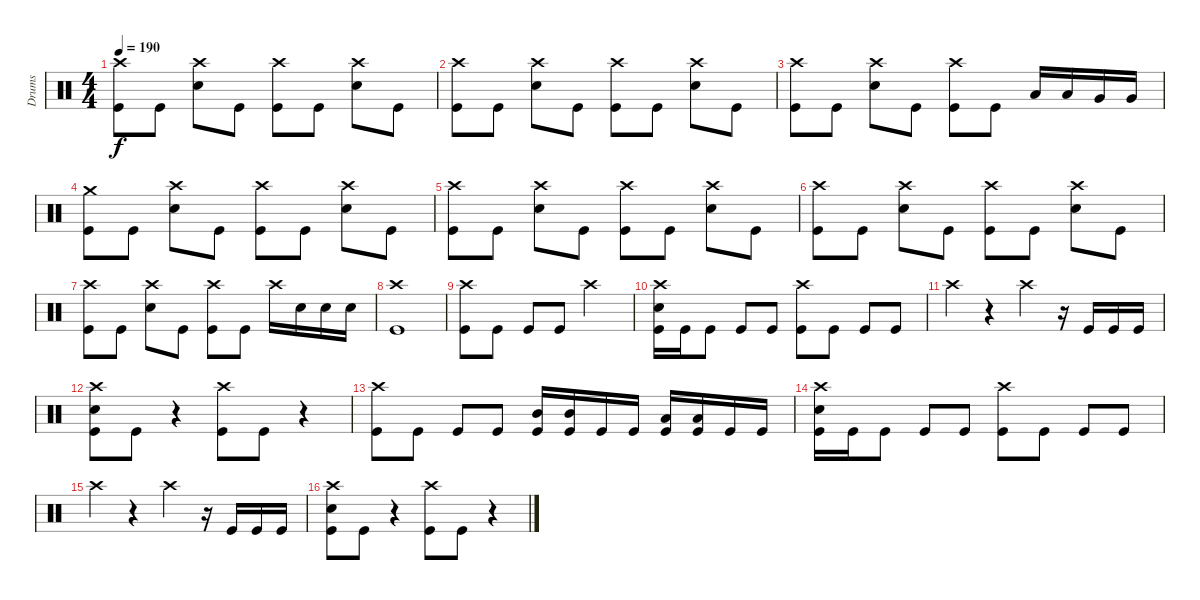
\track ("Drums" "Drums") {instrument percussion}
\staff {score}
\articulation defaults
\ts (4 4)
\tempo 190
\clef neutral
\ks c
("Crash high (hit)" "Kick (hit)").8{dy f} "Kick (hit)".8 ("Crash high (hit)" "Snare (hit) 2").8 "Kick (hit)".8 ("Crash high (hit)" "Kick (hit)").8 "Kick (hit)".8 ("Crash high (hit)" "Snare (hit) 2").8 "Kick (hit)".8 |
("Crash high (hit)" "Kick (hit)").8 "Kick (hit)".8 ("Crash high (hit)" "Snare (hit) 2").8 "Kick (hit)".8 ("Crash high (hit)" "Kick (hit)").8 "Kick (hit)".8 ("Crash high (hit)" "Snare (hit) 2").8 "Kick (hit)".8 |
("Crash high (hit)" "Kick (hit)").8 "Kick (hit)".8 ("Crash high (hit)" "Snare (hit) 2").8 "Kick (hit)".8 ("Crash high (hit)" "Kick (hit)").8 "Kick (hit)".8 "Low Tom (hit)".16 "Low Tom (hit)".16 "Very Low Tom (hit)".16 "Very Low Tom (hit)".16 |
("Crash medium (hit)" "Kick (hit)").8 "Kick (hit)".8 ("Crash high (hit)" "Snare (hit) 2").8 "Kick (hit)".8 ("Crash high (hit)" "Kick (hit)").8 "Kick (hit)".8 ("Crash high (hit)" "Snare (hit) 2").8 "Kick (hit)".8 |
("Crash high (hit)" "Kick (hit)").8 "Kick (hit)".8 ("Crash high (hit)" "Snare (hit) 2").8 "Kick (hit)".8 ("Crash high (hit)" "Kick (hit)").8 "Kick (hit)".8 ("Crash high (hit)" "Snare (hit) 2").8 "Kick (hit)".8 |
("Crash high (hit)" "Kick (hit)").8 "Kick (hit)".8 ("Crash high (hit)" "Snare (hit) 2").8 "Kick (hit)".8 ("Crash high (hit)" "Kick (hit)").8 "Kick (hit)".8 ("Crash high (hit)" "Snare (hit) 2").8 "Kick (hit)".8 |
("Crash high (hit)" "Kick (hit)").8 "Kick (hit)".8 ("Crash high (hit)" "Snare (hit) 2").8 "Kick (hit)".8 ("Crash high (hit)" "Kick (hit)").8 "Kick (hit)".8 "Crash high (hit)".16 "Snare (hit) 2".16 "Snare (hit) 2".16 "Snare (hit) 2".16 |
("Crash high (hit)" "Kick (hit)").1 |
("Crash high (hit)" "Kick (hit)").8 "Kick (hit)".8 "Kick (hit)".8 "Kick (hit)".8 "Crash high (hit)".2 |
("Crash high (hit)" "Snare (hit) 2" "Kick (hit)").16 "Kick (hit)".16 "Kick (hit)".8 "Kick (hit)".8 "Kick (hit)".8 ("Crash high (hit)" "Kick (hit)").8 "Kick (hit)".8 "Kick (hit)".8 "Kick (hit)".8 |
"Crash high (hit)".4 r.4 "Crash high (hit)".4 r.16 "Kick (hit)".16 "Kick (hit)".16 "Kick (hit)".16 |
("Crash high (hit)" "Snare (hit) 2" "Kick (hit)").8 "Kick (hit)".8 r.4 ("Crash high (hit)" "Kick (hit)").8 "Kick (hit)".8 r.4 |
("Crash high (hit)" "Kick (hit)").8 "Kick (hit)".8 "Kick (hit)".8 "Kick (hit)".8 ("Mid Tom (hit)" "Kick (hit)").16 ("Mid Tom (hit)" "Kick (hit)").16 "Kick (hit)".16 "Kick (hit)".16 ("Low Tom (hit)" "Kick (hit)").16 ("Low Tom (hit)" "Kick (hit)").16 "Kick (hit)".16 "Kick (hit)".16 |
("Crash high (hit)" "Snare (hit) 2" "Kick (hit)").16 "Kick (hit)".16 "Kick (hit)".8 "Kick (hit)".8 "Kick (hit)".8 ("Crash high (hit)" "Kick (hit)").8 "Kick (hit)".8 "Kick (hit)".8 "Kick (hit)".8 |
"Crash high (hit)".4 r.4 "Crash high (hit)".4 r.16 "Kick (hit)".16 "Kick (hit)".16 "Kick (hit)".16 |
("Crash high (hit)" "Snare (hit) 2" "Kick (hit)").8 "Kick (hit)".8 r.4 ("Crash high (hit)" "Kick (hit)").8 "Kick (hit)".8 r.4
